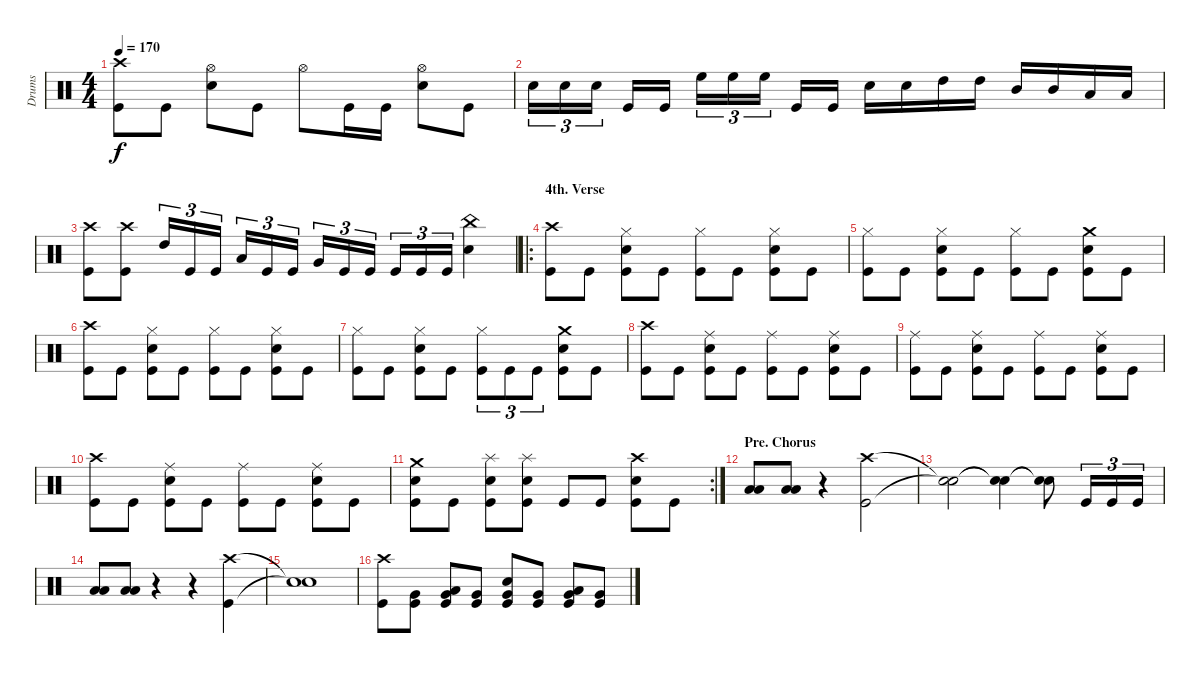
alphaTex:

\track ("Drums" "Drums") {instrument percussion}
\staff {score}
\articulation defaults
\ts (4 4)
\tempo 170
\clef neutral
\ks c
("Crash high (hit)" "Kick (hit)").8{dy f} "Kick (hit)".8 ("Hi-Hat (open)" "Snare (hit) 2").8 "Kick (hit)".8 "Hi-Hat (open)".8 "Kick (hit)".16 "Kick (hit)".16 ("Hi-Hat (open)" "Snare (hit) 2").8 "Kick (hit)".8 |
"Snare (hit) 2".16{tu (3 2)} "Snare (hit) 2".16{tu (3 2)} "Snare (hit) 2".16{tu (3 2)} "Kick (hit)".16 "Kick (hit)".16 "High Floor Tom (hit)".16{tu (3 2)} "High Floor Tom (hit)".16{tu (3 2)} "High Floor Tom (hit)".16{tu (3 2)} "Kick (hit)".16 "Kick (hit)".16 "Snare (hit) 2".16 "Snare (hit) 2".16 "High Tom (hit)".16 "High Tom (hit)".16 "Mid Tom (hit)".16 "Mid Tom (hit)".16 "Low Tom (hit)".16 "Low Tom (hit)".16 |
("Crash high (hit)" "Kick (hit)").8 ("Crash high (hit)" "Kick (hit)").8 "High Tom (hit)".16{tu (3 2)} "Kick (hit)".16{tu (3 2)} "Kick (hit)".16{tu (3 2)} "Low Tom (hit)".16{tu (3 2)} "Kick (hit)".16{tu (3 2)} "Kick (hit)".16{tu (3 2)} "Very Low Tom (hit)".16{tu (3 2)} "Kick (hit)".16{tu (3 2)} "Kick (hit)".16{tu (3 2)} "Kick (hit)".16{tu (3 2)} "Kick (hit)".16{tu (3 2)} "Kick (hit)".16{tu (3 2)} ("China (hit)" "Snare (hit) 2").4 |
\ro
\section ("" "4th. Verse")
("Crash high (hit)" "Kick (hit)").8 "Kick (hit)".8 ("Hi-Hat (closed)" "Snare (hit) 2" "Kick (hit)").8 "Kick (hit)".8 ("Hi-Hat (closed)" "Kick (hit)").8 "Kick (hit)".8 ("Hi-Hat (closed)" "Snare (hit) 2" "Kick (hit)").8 "Kick (hit)".8 |
("Hi-Hat (closed)" "Kick (hit)").8 "Kick (hit)".8 ("Hi-Hat (closed)" "Snare (hit) 2" "Kick (hit)").8 "Kick (hit)".8 ("Hi-Hat (closed)" "Kick (hit)").8 "Kick (hit)".8 ("Crash medium (hit)" "Snare (hit) 2" "Kick (hit)").8 "Kick (hit)".8 |
("Crash high (hit)" "Kick (hit)").8 "Kick (hit)".8 ("Hi-Hat (closed)" "Snare (hit) 2" "Kick (hit)").8 "Kick (hit)".8 ("Hi-Hat (closed)" "Kick (hit)").8 "Kick (hit)".8 ("Hi-Hat (closed)" "Snare (hit) 2" "Kick (hit)").8 "Kick (hit)".8 |
("Hi-Hat (closed)" "Kick (hit)").8 "Kick (hit)".8 ("Hi-Hat (closed)" "Snare (hit) 2" "Kick (hit)").8 "Kick (hit)".8 ("Hi-Hat (closed)" "Kick (hit)").8{tu (3 2)} "Kick (hit)".8{tu (3 2)} "Kick (hit)".8{tu (3 2)} ("Crash medium (hit)" "Snare (hit) 2" "Kick (hit)").8 "Kick (hit)".8 |
("Crash high (hit)" "Kick (hit)").8 "Kick (hit)".8 ("Ride (middle)" "Snare (hit) 2" "Kick (hit)").8 "Kick (hit)".8 ("Ride (middle)" "Kick (hit)").8 "Kick (hit)".8 ("Ride (middle)" "Snare (hit) 2" "Kick (hit)").8 "Kick (hit)".8 |
("Ride (middle)" "Kick (hit)").8 "Kick (hit)".8 ("Ride (middle)" "Snare (hit) 2" "Kick (hit)").8 "Kick (hit)".8 ("Ride (middle)" "Kick (hit)").8 "Kick (hit)".8 ("Ride (middle)" "Snare (hit) 2" "Kick (hit)").8 "Kick (hit)".8 |
("Crash high (hit)" "Kick (hit)").8 "Kick (hit)".8 ("Ride (middle)" "Snare (hit) 2" "Kick (hit)").8 "Kick (hit)".8 ("Ride (middle)" "Kick (hit)").8 "Kick (hit)".8 ("Ride (middle)" "Snare (hit) 2" "Kick (hit)").8 "Kick (hit)".8 |
\rc 2
("Crash medium (hit)" "Snare (hit) 2" "Kick (hit)").8 "Kick (hit)".8 ("Splash (hit)" "Snare (hit) 2" "Kick (hit)").8 ("Splash (hit)" "Snare (hit) 2" "Kick (hit)").8 "Kick (hit)".8 "Kick (hit)".8 ("Crash high (hit)" "Snare (hit) 2" "Kick (hit)").8 "Kick (hit)".8 |
\section ("" "Pre. Chorus")
("Low Tom (hit)" "Low Floor Tom (hit)").8 ("Low Tom (hit)" "Low Floor Tom (hit)").8 r.4 ("Crash high (hit)" "Kick (hit)").2 |
("Snare (hit)"{t} "Snare (hit)"{t}).2 ("Snare (hit)"{t} "Snare (hit)"{t}).4 ("Snare (hit)"{t} "Snare (hit)"{t}).8 "Kick (hit)".16{tu (3 2)} "Kick (hit)".16{tu (3 2)} "Kick (hit)".16{tu (3 2)} |
("Low Tom (hit)" "Low Floor Tom (hit)").8 ("Low Tom (hit)" "Low Floor Tom (hit)").8 r.4 r.4 ("Crash high (hit)" "Kick (hit)").4 |
("Snare (hit)"{t} "Snare (hit)"{t}).1 |
("Crash high (hit)" "Kick (hit)").8 ("Very Low Tom (hit)" "Kick (hit)").8 ("Low Tom (hit)" "Very Low Tom (hit)" "Kick (hit)").8 ("Very Low Tom (hit)" "Kick (hit)").8 ("Very Low Tom (hit)" "Snare (hit) 2" "Kick (hit)").8 ("Very Low Tom (hit)" "Kick (hit)").8 ("Low Tom (hit)" "Very Low Tom (hit)" "Kick (hit)").8 ("Very Low Tom (hit)" "Kick (hit)").8
